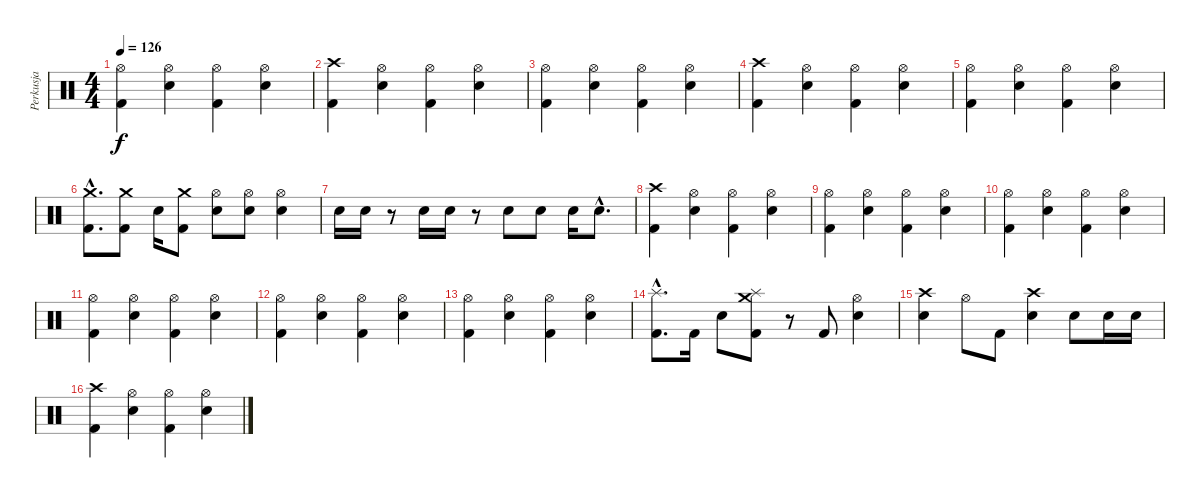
\track ("Perkusja" "Perkusja") {instrument percussion}
\staff {score}
\articulation defaults
\ts (4 4)
\tempo 126
\clef neutral
\ks c
("Hi-Hat (open)" "Kick (hit) 2").4{dy f} ("Hi-Hat (open)" "Electric Snare (hit)").4 ("Hi-Hat (open)" "Kick (hit) 2").4 ("Hi-Hat (open)" "Electric Snare (hit)").4 |
("Crash high (hit)" "Kick (hit) 2").4 ("Hi-Hat (open)" "Electric Snare (hit)").4 ("Hi-Hat (open)" "Kick (hit) 2").4 ("Hi-Hat (open)" "Electric Snare (hit)").4 |
("Hi-Hat (open)" "Kick (hit) 2").4 ("Hi-Hat (open)" "Electric Snare (hit)").4 ("Hi-Hat (open)" "Kick (hit) 2").4 ("Hi-Hat (open)" "Electric Snare (hit)").4 |
("Crash high (hit)" "Kick (hit) 2").4 ("Hi-Hat (open)" "Electric Snare (hit)").4 ("Hi-Hat (open)" "Kick (hit) 2").4 ("Hi-Hat (open)" "Electric Snare (hit)").4 |
("Hi-Hat (open)" "Kick (hit) 2").4 ("Hi-Hat (open)" "Electric Snare (hit)").4 ("Hi-Hat (open)" "Kick (hit) 2").4 ("Hi-Hat (open)" "Electric Snare (hit)").4 |
("Crash medium (hit)"{hac} "Kick (hit) 2"{hac}).8{d} ("Crash medium (hit)" "Kick (hit) 2").8 "Electric Snare (hit)".16 ("Crash medium (hit)" "Kick (hit) 2").8 ("Hi-Hat (open)" "Electric Snare (hit)").8 ("Hi-Hat (open)" "Electric Snare (hit)").8 ("Hi-Hat (open)" "Electric Snare (hit)").4 |
"Electric Snare (hit)".16 "Electric Snare (hit)".16 r.8 "Electric Snare (hit)".16 "Electric Snare (hit)".16 r.8 "Electric Snare (hit)".8 "Electric Snare (hit)".8 "Electric Snare (hit)".16 "Electric Snare (hit)"{hac}.8{d} |
("Crash high (hit)" "Kick (hit) 2").4 ("Hi-Hat (open)" "Electric Snare (hit)").4 ("Hi-Hat (open)" "Kick (hit) 2").4 ("Hi-Hat (open)" "Electric Snare (hit)").4 |
("Hi-Hat (open)" "Kick (hit) 2").4 ("Hi-Hat (open)" "Electric Snare (hit)").4 ("Hi-Hat (open)" "Kick (hit) 2").4 ("Hi-Hat (open)" "Electric Snare (hit)").4 |
("Hi-Hat (open)" "Kick (hit) 2").4 ("Hi-Hat (open)" "Electric Snare (hit)").4 ("Hi-Hat (open)" "Kick (hit) 2").4 ("Hi-Hat (open)" "Electric Snare (hit)").4 |
("Hi-Hat (open)" "Kick (hit) 2").4 ("Hi-Hat (open)" "Electric Snare (hit)").4 ("Hi-Hat (open)" "Kick (hit) 2").4 ("Hi-Hat (open)" "Electric Snare (hit)").4 |
("Hi-Hat (open)" "Kick (hit) 2").4 ("Hi-Hat (open)" "Electric Snare (hit)").4 ("Hi-Hat (open)" "Kick (hit) 2").4 ("Hi-Hat (open)" "Electric Snare (hit)").4 |
("Hi-Hat (open)" "Kick (hit) 2").4 ("Hi-Hat (open)" "Electric Snare (hit)").4 ("Hi-Hat (open)" "Kick (hit) 2").4 ("Hi-Hat (open)" "Electric Snare (hit)").4 |
("Splash (hit)"{hac} "Kick (hit) 2"{hac}).8{d} "Kick (hit) 2".16 "Electric Snare (hit)".8 ("Crash medium (hit)" "Splash (hit)" "Kick (hit) 2").8 r.8 "Kick (hit) 2".8 ("Hi-Hat (open)" "Electric Snare (hit)").4 |
("Crash high (hit)" "Electric Snare (hit)").4 "Hi-Hat (open)".8 "Kick (hit) 2".8 ("Crash high (hit)" "Electric Snare (hit)").4 "Electric Snare (hit)".8 "Electric Snare (hit)".16 "Electric Snare (hit)".16 |
("Crash high (hit)" "Kick (hit) 2").4 ("Hi-Hat (open)" "Electric Snare (hit)").4 ("Hi-Hat (open)" "Kick (hit) 2").4 ("Hi-Hat (open)" "Electric Snare (hit)").4
